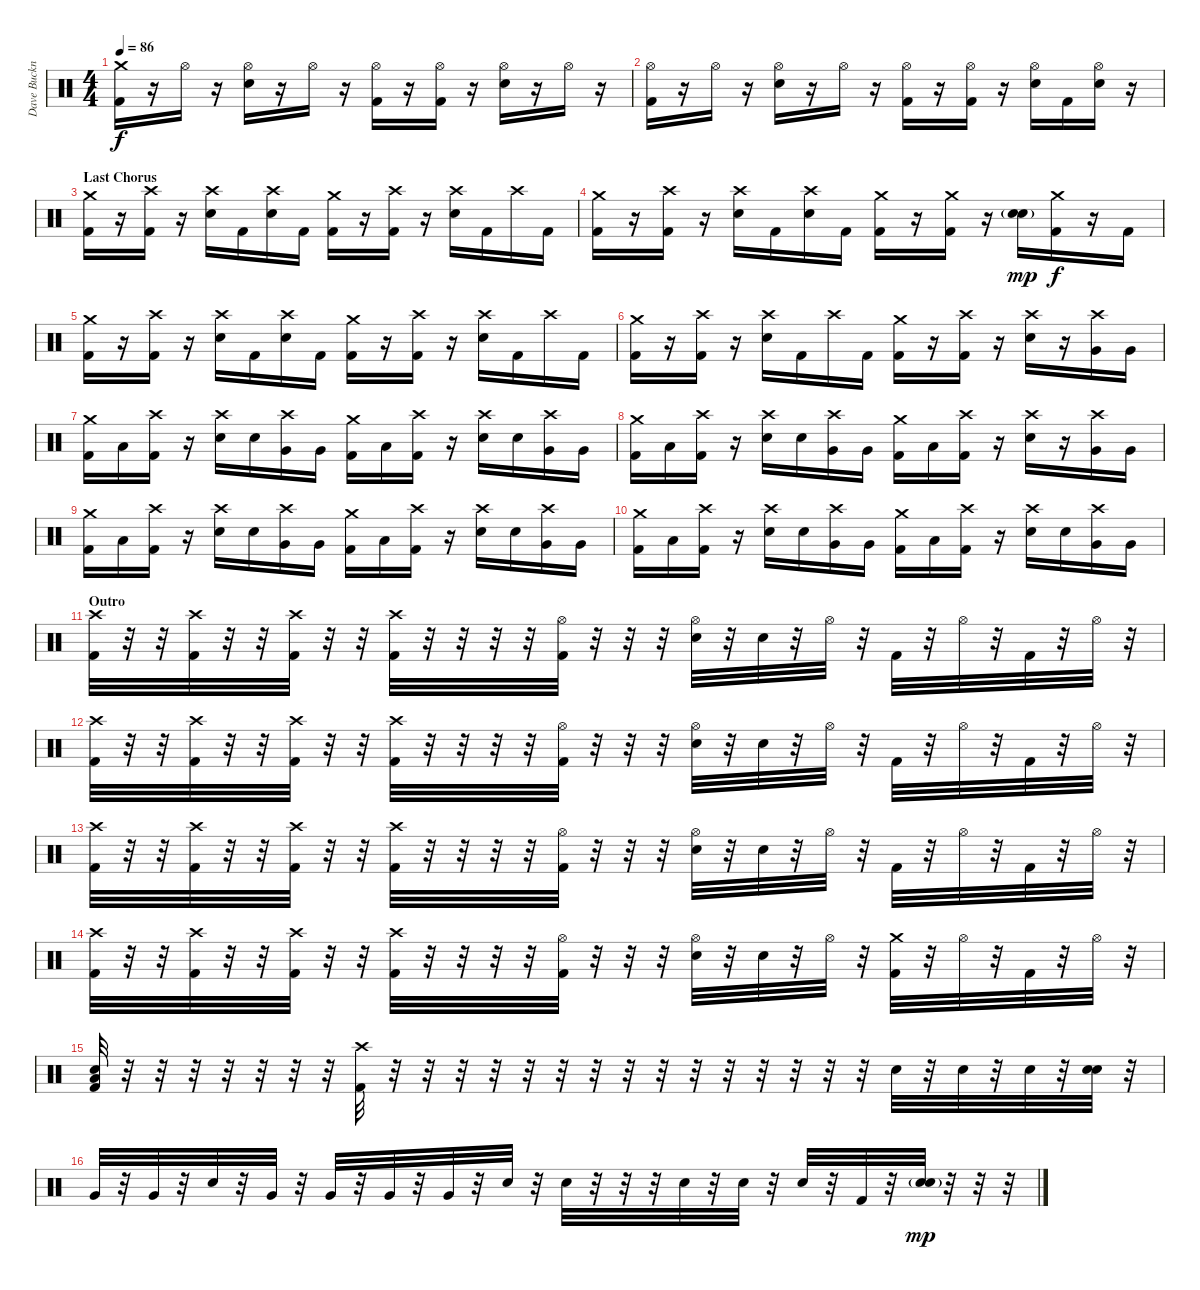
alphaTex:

\track ("Dave Buckner - Drums" "Dave Buckn") {instrument percussion}
\staff {score}
\articulation defaults
\ts (4 4)
\tempo 86
\clef neutral
\ks c
("Crash medium (hit)" "Kick (hit) 2").16{dy f} r.16 "Hi-Hat (open)".16 r.16 ("Hi-Hat (open)" "Snare (hit) 2").16 r.16 "Hi-Hat (open)".16 r.16 ("Hi-Hat (open)" "Kick (hit) 2").16 r.16 ("Hi-Hat (open)" "Kick (hit) 2").16 r.16 ("Hi-Hat (open)" "Snare (hit) 2").16 r.16 "Hi-Hat (open)".16 r.16 |
("Hi-Hat (open)" "Kick (hit) 2").16 r.16 "Hi-Hat (open)".16 r.16 ("Hi-Hat (open)" "Snare (hit) 2").16 r.16 "Hi-Hat (open)".16 r.16 ("Hi-Hat (open)" "Kick (hit) 2").16 r.16 ("Hi-Hat (open)" "Kick (hit) 2").16 r.16 ("Hi-Hat (open)" "Snare (hit) 2").16 "Kick (hit) 2".16 ("Hi-Hat (open)" "Snare (hit) 2").16 r.16 |
\section ("" "Last Chorus")
("Crash medium (hit)" "Kick (hit) 2").16 r.16 ("Crash high (hit)" "Kick (hit) 2").16 r.16 ("Crash high (hit)" "Snare (hit) 2").16 "Kick (hit) 2".16 ("Crash high (hit)" "Snare (hit) 2").16 "Kick (hit) 2".16 ("Crash medium (hit)" "Kick (hit) 2").16 r.16 ("Crash high (hit)" "Kick (hit) 2").16 r.16 ("Crash high (hit)" "Snare (hit) 2").16 "Kick (hit) 2".16 "Crash high (hit)".16 "Kick (hit) 2".16 |
("Crash medium (hit)" "Kick (hit) 2").16 r.16 ("Crash high (hit)" "Kick (hit) 2").16 r.16 ("Crash high (hit)" "Snare (hit) 2").16 "Kick (hit) 2".16 ("Crash high (hit)" "Snare (hit) 2").16 "Kick (hit) 2".16 ("Crash medium (hit)" "Kick (hit) 2").16 r.16 ("Crash medium (hit)" "Kick (hit) 2").16 r.16 ("Snare (hit) 2"{g} "Snare (hit) 2").16{dy mp} ("Crash medium (hit)" "Kick (hit) 2").16{dy f} r.16 "Kick (hit) 2".16 |
("Crash medium (hit)" "Kick (hit) 2").16 r.16 ("Crash high (hit)" "Kick (hit) 2").16 r.16 ("Crash high (hit)" "Snare (hit) 2").16 "Kick (hit) 2".16 ("Crash high (hit)" "Snare (hit) 2").16 "Kick (hit) 2".16 ("Crash medium (hit)" "Kick (hit) 2").16 r.16 ("Crash high (hit)" "Kick (hit) 2").16 r.16 ("Crash high (hit)" "Snare (hit) 2").16 "Kick (hit) 2".16 "Crash high (hit)".16 "Kick (hit) 2".16 |
("Crash medium (hit)" "Kick (hit) 2").16 r.16 ("Crash high (hit)" "Kick (hit) 2").16 r.16 ("Crash high (hit)" "Snare (hit) 2").16 "Kick (hit) 2".16 "Crash high (hit)".16 "Kick (hit) 2".16 ("Crash medium (hit)" "Kick (hit) 2").16 r.16 ("Crash high (hit)" "Kick (hit) 2").16 r.16 ("Crash high (hit)" "Snare (hit) 2").16 r.16 ("Crash high (hit)" "Very Low Tom (hit)").16 "Very Low Tom (hit)".16 |
("Crash medium (hit)" "Kick (hit) 2").16 "Low Tom (hit)".16 ("Crash high (hit)" "Kick (hit) 2").16 r.16 ("Crash high (hit)" "Snare (hit) 2").16 "Snare (hit) 2".16 ("Crash high (hit)" "Very Low Tom (hit)").16 "Very Low Tom (hit)".16 ("Crash medium (hit)" "Kick (hit) 2").16 "Low Tom (hit)".16 ("Crash high (hit)" "Kick (hit) 2").16 r.16 ("Crash high (hit)" "Snare (hit) 2").16 "Snare (hit) 2".16 ("Crash high (hit)" "Very Low Tom (hit)").16 "Very Low Tom (hit)".16 |
("Crash medium (hit)" "Kick (hit) 2").16 "Low Tom (hit)".16 ("Crash high (hit)" "Kick (hit) 2").16 r.16 ("Crash high (hit)" "Snare (hit) 2").16 "Snare (hit) 2".16 ("Crash high (hit)" "Very Low Tom (hit)").16 "Very Low Tom (hit)".16 ("Crash medium (hit)" "Kick (hit) 2").16 "Low Tom (hit)".16 ("Crash high (hit)" "Kick (hit) 2").16 r.16 ("Crash high (hit)" "Snare (hit) 2").16 r.16 ("Crash high (hit)" "Very Low Tom (hit)").16 "Very Low Tom (hit)".16 |
("Crash medium (hit)" "Kick (hit) 2").16 "Low Tom (hit)".16 ("Crash high (hit)" "Kick (hit) 2").16 r.16 ("Crash high (hit)" "Snare (hit) 2").16 "Snare (hit) 2".16 ("Crash high (hit)" "Very Low Tom (hit)").16 "Very Low Tom (hit)".16 ("Crash medium (hit)" "Kick (hit) 2").16 "Low Tom (hit)".16 ("Crash high (hit)" "Kick (hit) 2").16 r.16 ("Crash high (hit)" "Snare (hit) 2").16 "Snare (hit) 2".16 ("Crash high (hit)" "Very Low Tom (hit)").16 "Very Low Tom (hit)".16 |
("Crash medium (hit)" "Kick (hit) 2").16 "Low Tom (hit)".16 ("Crash high (hit)" "Kick (hit) 2").16 r.16 ("Crash high (hit)" "Snare (hit) 2").16 "Snare (hit) 2".16 ("Crash high (hit)" "Very Low Tom (hit)").16 "Very Low Tom (hit)".16 ("Crash medium (hit)" "Kick (hit) 2").16 "Low Tom (hit)".16 ("Crash high (hit)" "Kick (hit) 2").16 r.16 ("Crash high (hit)" "Snare (hit) 2").16 "Snare (hit) 2".16 ("Crash high (hit)" "Very Low Tom (hit)").16 "Very Low Tom (hit)".16 |
\section ("" "Outro")
("Crash high (hit)" "Kick (hit) 2").32 r.32 r.32 ("Crash high (hit)" "Kick (hit) 2").32 r.32 r.32 ("Crash high (hit)" "Kick (hit) 2").32 r.32 r.32 ("Crash high (hit)" "Kick (hit) 2").32 r.32 r.32 r.32 r.32 ("Hi-Hat (open)" "Kick (hit) 2").32 r.32 r.32 r.32 ("Hi-Hat (open)" "Snare (hit) 2").32 r.32 "Snare (hit) 2".32 r.32 "Hi-Hat (open)".32 r.32 "Kick (hit) 2".32 r.32 "Hi-Hat (open)".32 r.32 "Kick (hit) 2".32 r.32 "Hi-Hat (open)".32 r.32 |
("Crash high (hit)" "Kick (hit) 2").32 r.32 r.32 ("Crash high (hit)" "Kick (hit) 2").32 r.32 r.32 ("Crash high (hit)" "Kick (hit) 2").32 r.32 r.32 ("Crash high (hit)" "Kick (hit) 2").32 r.32 r.32 r.32 r.32 ("Hi-Hat (open)" "Kick (hit) 2").32 r.32 r.32 r.32 ("Hi-Hat (open)" "Snare (hit) 2").32 r.32 "Snare (hit) 2".32 r.32 "Hi-Hat (open)".32 r.32 "Kick (hit) 2".32 r.32 "Hi-Hat (open)".32 r.32 "Kick (hit) 2".32 r.32 "Hi-Hat (open)".32 r.32 |
("Crash high (hit)" "Kick (hit) 2").32 r.32 r.32 ("Crash high (hit)" "Kick (hit) 2").32 r.32 r.32 ("Crash high (hit)" "Kick (hit) 2").32 r.32 r.32 ("Crash high (hit)" "Kick (hit) 2").32 r.32 r.32 r.32 r.32 ("Hi-Hat (open)" "Kick (hit) 2").32 r.32 r.32 r.32 ("Hi-Hat (open)" "Snare (hit) 2").32 r.32 "Snare (hit) 2".32 r.32 "Hi-Hat (open)".32 r.32 "Kick (hit) 2".32 r.32 "Hi-Hat (open)".32 r.32 "Kick (hit) 2".32 r.32 "Hi-Hat (open)".32 r.32 |
("Crash high (hit)" "Kick (hit) 2").32 r.32 r.32 ("Crash high (hit)" "Kick (hit) 2").32 r.32 r.32 ("Crash high (hit)" "Kick (hit) 2").32 r.32 r.32 ("Crash high (hit)" "Kick (hit) 2").32 r.32 r.32 r.32 r.32 ("Hi-Hat (open)" "Kick (hit) 2").32 r.32 r.32 r.32 ("Hi-Hat (open)" "Snare (hit) 2").32 r.32 "Snare (hit) 2".32 r.32 "Hi-Hat (open)".32 r.32 ("Crash medium (hit)" "Kick (hit) 2").32 r.32 "Hi-Hat (open)".32 r.32 "Kick (hit) 2".32 r.32 "Hi-Hat (open)".32 r.32 |
("Snare (hit) 2" "Low Floor Tom (hit)" "Kick (hit) 2").32 r.32 r.32 r.32 r.32 r.32 r.32 r.32 ("Crash high (hit)" "Kick (hit) 2").32 r.32 r.32 r.32 r.32 r.32 r.32 r.32 r.32 r.32 r.32 r.32 r.32 r.32 r.32 r.32 "Snare (hit) 2".32 r.32 "Snare (hit) 2".32 r.32 "Snare (hit) 2".32 r.32 ("Snare (hit) 2" "Snare (hit) 2").32 r.32 |
"Very Low Tom (hit)".32 r.32 "Very Low Tom (hit)".32 r.32 "Snare (hit) 2".32 r.32 "Very Low Tom (hit)".32 r.32 "Very Low Tom (hit)".32 r.32 "Very Low Tom (hit)".32 r.32 "Very Low Tom (hit)".32 r.32 "Snare (hit) 2".32 r.32 "Snare (hit) 2".32 r.32 r.32 r.32 "Snare (hit) 2".32 r.32 "Snare (hit) 2".32 r.32 "Snare (hit) 2".32 r.32 "Kick (hit) 2".32 r.32 ("Snare (hit) 2"{g} "Snare (hit) 2").32{dy mp} r.32 r.32 r.32
